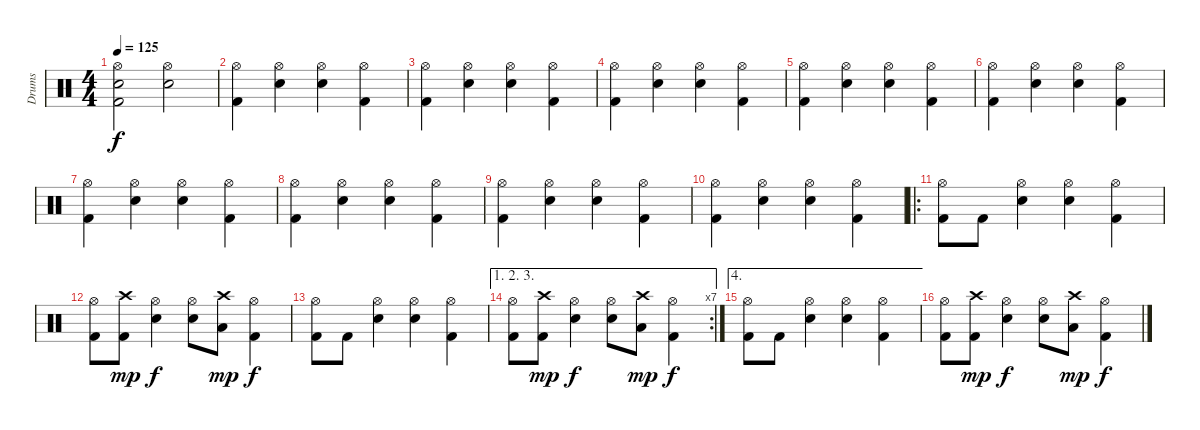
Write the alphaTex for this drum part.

\track ("Drums" "Drums") {instrument percussion}
\staff {score}
\articulation defaults
\ts (4 4)
\tempo 125
\clef neutral
\ks c
("Hi-Hat (open)" "Electric Snare (hit)" "Kick (hit) 2").2{dy f} ("Hi-Hat (open)" "Electric Snare (hit)").2 |
("Hi-Hat (open)" "Kick (hit) 2").4 ("Hi-Hat (open)" "Electric Snare (hit)").4 ("Hi-Hat (open)" "Electric Snare (hit)").4 ("Hi-Hat (open)" "Kick (hit) 2").4 |
("Hi-Hat (open)" "Kick (hit) 2").4 ("Hi-Hat (open)" "Electric Snare (hit)").4 ("Hi-Hat (open)" "Electric Snare (hit)").4 ("Hi-Hat (open)" "Kick (hit) 2").4 |
("Hi-Hat (open)" "Kick (hit) 2").4 ("Hi-Hat (open)" "Electric Snare (hit)").4 ("Hi-Hat (open)" "Electric Snare (hit)").4 ("Hi-Hat (open)" "Kick (hit) 2").4 |
("Hi-Hat (open)" "Kick (hit) 2").4 ("Hi-Hat (open)" "Electric Snare (hit)").4 ("Hi-Hat (open)" "Electric Snare (hit)").4 ("Hi-Hat (open)" "Kick (hit) 2").4 |
("Hi-Hat (open)" "Kick (hit) 2").4 ("Hi-Hat (open)" "Electric Snare (hit)").4 ("Hi-Hat (open)" "Electric Snare (hit)").4 ("Hi-Hat (open)" "Kick (hit) 2").4 |
("Hi-Hat (open)" "Kick (hit) 2").4 ("Hi-Hat (open)" "Electric Snare (hit)").4 ("Hi-Hat (open)" "Electric Snare (hit)").4 ("Hi-Hat (open)" "Kick (hit) 2").4 |
("Hi-Hat (open)" "Kick (hit) 2").4 ("Hi-Hat (open)" "Electric Snare (hit)").4 ("Hi-Hat (open)" "Electric Snare (hit)").4 ("Hi-Hat (open)" "Kick (hit) 2").4 |
("Hi-Hat (open)" "Kick (hit) 2").4 ("Hi-Hat (open)" "Electric Snare (hit)").4 ("Hi-Hat (open)" "Electric Snare (hit)").4 ("Hi-Hat (open)" "Kick (hit) 2").4 |
("Hi-Hat (open)" "Kick (hit) 2").4 ("Hi-Hat (open)" "Electric Snare (hit)").4 ("Hi-Hat (open)" "Electric Snare (hit)").4 ("Hi-Hat (open)" "Kick (hit) 2").4 |
\ro
("Hi-Hat (open)" "Kick (hit) 2").8 "Kick (hit) 2".8 ("Hi-Hat (open)" "Electric Snare (hit)").4 ("Hi-Hat (open)" "Electric Snare (hit)").4 ("Hi-Hat (open)" "Kick (hit) 2").4 |
("Hi-Hat (open)" "Kick (hit) 2").8 ("Crash high (hit)" "Kick (hit) 2").8{dy mp} ("Hi-Hat (open)" "Electric Snare (hit)").4{dy f} ("Hi-Hat (open)" "Electric Snare (hit)").8 ("Crash high (hit)" "Low Tom (hit)").8{dy mp} ("Hi-Hat (open)" "Kick (hit) 2").4{dy f} |
("Hi-Hat (open)" "Kick (hit) 2").8 "Kick (hit) 2".8 ("Hi-Hat (open)" "Electric Snare (hit)").4 ("Hi-Hat (open)" "Electric Snare (hit)").4 ("Hi-Hat (open)" "Kick (hit) 2").4 |
\ae (1 2 3)
\rc 7
("Hi-Hat (open)" "Kick (hit) 2").8 ("Crash high (hit)" "Kick (hit) 2").8{dy mp} ("Hi-Hat (open)" "Electric Snare (hit)").4{dy f} ("Hi-Hat (open)" "Electric Snare (hit)").8 ("Crash high (hit)" "Low Tom (hit)").8{dy mp} ("Hi-Hat (open)" "Kick (hit) 2").4{dy f} |
\ae 4
("Hi-Hat (open)" "Kick (hit) 2").8 "Kick (hit) 2".8 ("Hi-Hat (open)" "Electric Snare (hit)").4 ("Hi-Hat (open)" "Electric Snare (hit)").4 ("Hi-Hat (open)" "Kick (hit) 2").4 |
("Hi-Hat (open)" "Kick (hit) 2").8 ("Crash high (hit)" "Kick (hit) 2").8{dy mp} ("Hi-Hat (open)" "Electric Snare (hit)").4{dy f} ("Hi-Hat (open)" "Electric Snare (hit)").8 ("Crash high (hit)" "Low Tom (hit)").8{dy mp} ("Hi-Hat (open)" "Kick (hit) 2").4{dy f}
